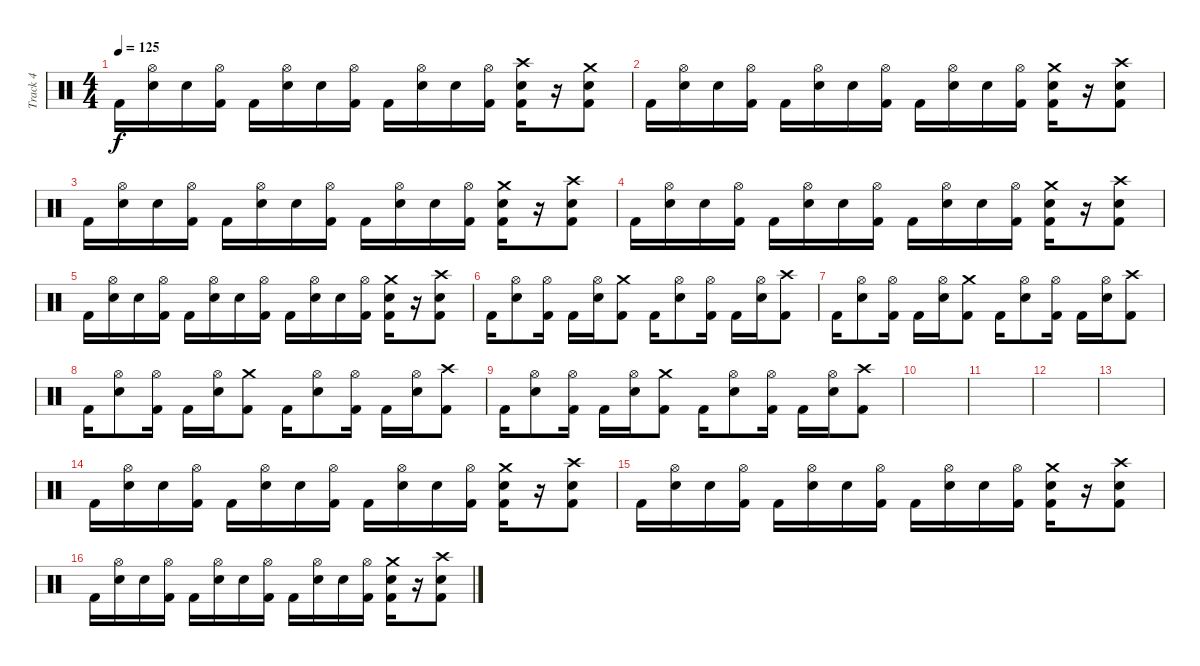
\track ("Track 4" "Track 4") {instrument percussion}
\staff {score}
\articulation defaults
\ts (4 4)
\tempo 125
\clef neutral
\ks c "Kick (hit) 2".16{dy f}
("Hi-Hat (open)" "Electric Snare (hit)").16 "Electric Snare (hit)".16 ("Hi-Hat (open)" "Kick (hit) 2").16 "Kick (hit) 2".16 ("Hi-Hat (open)" "Electric Snare (hit)").16 "Electric Snare (hit)".16 ("Hi-Hat (open)" "Kick (hit) 2").16 "Kick (hit) 2".16 ("Hi-Hat (open)" "Electric Snare (hit)").16 "Electric Snare (hit)".16 ("Hi-Hat (open)" "Kick (hit) 2").16 ("Crash high (hit)" "Electric Snare (hit)" "Kick (hit) 2").16 r.16 ("Crash medium (hit)" "Electric Snare (hit)" "Kick (hit) 2").8 |
"Kick (hit) 2".16 ("Hi-Hat (open)" "Electric Snare (hit)").16 "Electric Snare (hit)".16 ("Hi-Hat (open)" "Kick (hit) 2").16 "Kick (hit) 2".16 ("Hi-Hat (open)" "Electric Snare (hit)").16 "Electric Snare (hit)".16 ("Hi-Hat (open)" "Kick (hit) 2").16 "Kick (hit) 2".16 ("Hi-Hat (open)" "Electric Snare (hit)").16 "Electric Snare (hit)".16 ("Hi-Hat (open)" "Kick (hit) 2").16 ("Crash medium (hit)" "Electric Snare (hit)" "Kick (hit) 2").16 r.16 ("Crash high (hit)" "Electric Snare (hit)" "Kick (hit) 2").8 |
"Kick (hit) 2".16 ("Hi-Hat (open)" "Electric Snare (hit)").16 "Electric Snare (hit)".16 ("Hi-Hat (open)" "Kick (hit) 2").16 "Kick (hit) 2".16 ("Hi-Hat (open)" "Electric Snare (hit)").16 "Electric Snare (hit)".16 ("Hi-Hat (open)" "Kick (hit) 2").16 "Kick (hit) 2".16 ("Hi-Hat (open)" "Electric Snare (hit)").16 "Electric Snare (hit)".16 ("Hi-Hat (open)" "Kick (hit) 2").16 ("Crash medium (hit)" "Electric Snare (hit)" "Kick (hit) 2").16 r.16 ("Crash high (hit)" "Electric Snare (hit)" "Kick (hit) 2").8 |
"Kick (hit) 2".16 ("Hi-Hat (open)" "Electric Snare (hit)").16 "Electric Snare (hit)".16 ("Hi-Hat (open)" "Kick (hit) 2").16 "Kick (hit) 2".16 ("Hi-Hat (open)" "Electric Snare (hit)").16 "Electric Snare (hit)".16 ("Hi-Hat (open)" "Kick (hit) 2").16 "Kick (hit) 2".16 ("Hi-Hat (open)" "Electric Snare (hit)").16 "Electric Snare (hit)".16 ("Hi-Hat (open)" "Kick (hit) 2").16 ("Crash medium (hit)" "Electric Snare (hit)" "Kick (hit) 2").16 r.16 ("Crash high (hit)" "Electric Snare (hit)" "Kick (hit) 2").8 |
"Kick (hit) 2".16 ("Hi-Hat (open)" "Electric Snare (hit)").16 "Electric Snare (hit)".16 ("Hi-Hat (open)" "Kick (hit) 2").16 "Kick (hit) 2".16 ("Hi-Hat (open)" "Electric Snare (hit)").16 "Electric Snare (hit)".16 ("Hi-Hat (open)" "Kick (hit) 2").16 "Kick (hit) 2".16 ("Hi-Hat (open)" "Electric Snare (hit)").16 "Electric Snare (hit)".16 ("Hi-Hat (open)" "Kick (hit) 2").16 ("Crash medium (hit)" "Electric Snare (hit)" "Kick (hit) 2").16 r.16 ("Crash high (hit)" "Electric Snare (hit)" "Kick (hit) 2").8 |
"Kick (hit) 2".16 ("Hi-Hat (open)" "Electric Snare (hit)").8 ("Hi-Hat (open)" "Kick (hit) 2").16 "Kick (hit) 2".16 ("Hi-Hat (open)" "Electric Snare (hit)").16 ("Crash medium (hit)" "Kick (hit) 2").8 "Kick (hit) 2".16 ("Hi-Hat (open)" "Electric Snare (hit)").8 ("Hi-Hat (open)" "Kick (hit) 2").16 "Kick (hit) 2".16 ("Hi-Hat (open)" "Electric Snare (hit)").16 ("Crash high (hit)" "Kick (hit) 2").8 |
"Kick (hit) 2".16 ("Hi-Hat (open)" "Electric Snare (hit)").8 ("Hi-Hat (open)" "Kick (hit) 2").16 "Kick (hit) 2".16 ("Hi-Hat (open)" "Electric Snare (hit)").16 ("Crash medium (hit)" "Kick (hit) 2").8 "Kick (hit) 2".16 ("Hi-Hat (open)" "Electric Snare (hit)").8 ("Hi-Hat (open)" "Kick (hit) 2").16 "Kick (hit) 2".16 ("Hi-Hat (open)" "Electric Snare (hit)").16 ("Crash high (hit)" "Kick (hit) 2").8 |
"Kick (hit) 2".16 ("Hi-Hat (open)" "Electric Snare (hit)").8 ("Hi-Hat (open)" "Kick (hit) 2").16 "Kick (hit) 2".16 ("Hi-Hat (open)" "Electric Snare (hit)").16 ("Crash medium (hit)" "Kick (hit) 2").8 "Kick (hit) 2".16 ("Hi-Hat (open)" "Electric Snare (hit)").8 ("Hi-Hat (open)" "Kick (hit) 2").16 "Kick (hit) 2".16 ("Hi-Hat (open)" "Electric Snare (hit)").16 ("Crash high (hit)" "Kick (hit) 2").8 |
"Kick (hit) 2".16 ("Hi-Hat (open)" "Electric Snare (hit)").8 ("Hi-Hat (open)" "Kick (hit) 2").16 "Kick (hit) 2".16 ("Hi-Hat (open)" "Electric Snare (hit)").16 ("Crash medium (hit)" "Kick (hit) 2").8 "Kick (hit) 2".16 ("Hi-Hat (open)" "Electric Snare (hit)").8 ("Hi-Hat (open)" "Kick (hit) 2").16 "Kick (hit) 2".16 ("Hi-Hat (open)" "Electric Snare (hit)").16 ("Crash high (hit)" "Kick (hit) 2").8 |
|
|
|
|
"Kick (hit) 2".16 ("Hi-Hat (open)" "Electric Snare (hit)").16 "Electric Snare (hit)".16 ("Hi-Hat (open)" "Kick (hit) 2").16 "Kick (hit) 2".16 ("Hi-Hat (open)" "Electric Snare (hit)").16 "Electric Snare (hit)".16 ("Hi-Hat (open)" "Kick (hit) 2").16 "Kick (hit) 2".16 ("Hi-Hat (open)" "Electric Snare (hit)").16 "Electric Snare (hit)".16 ("Hi-Hat (open)" "Kick (hit) 2").16 ("Crash medium (hit)" "Electric Snare (hit)" "Kick (hit) 2").16 r.16 ("Crash high (hit)" "Electric Snare (hit)" "Kick (hit) 2").8 |
"Kick (hit) 2".16 ("Hi-Hat (open)" "Electric Snare (hit)").16 "Electric Snare (hit)".16 ("Hi-Hat (open)" "Kick (hit) 2").16 "Kick (hit) 2".16 ("Hi-Hat (open)" "Electric Snare (hit)").16 "Electric Snare (hit)".16 ("Hi-Hat (open)" "Kick (hit) 2").16 "Kick (hit) 2".16 ("Hi-Hat (open)" "Electric Snare (hit)").16 "Electric Snare (hit)".16 ("Hi-Hat (open)" "Kick (hit) 2").16 ("Crash medium (hit)" "Electric Snare (hit)" "Kick (hit) 2").16 r.16 ("Crash high (hit)" "Electric Snare (hit)" "Kick (hit) 2").8 |
"Kick (hit) 2".16 ("Hi-Hat (open)" "Electric Snare (hit)").16 "Electric Snare (hit)".16 ("Hi-Hat (open)" "Kick (hit) 2").16 "Kick (hit) 2".16 ("Hi-Hat (open)" "Electric Snare (hit)").16 "Electric Snare (hit)".16 ("Hi-Hat (open)" "Kick (hit) 2").16 "Kick (hit) 2".16 ("Hi-Hat (open)" "Electric Snare (hit)").16 "Electric Snare (hit)".16 ("Hi-Hat (open)" "Kick (hit) 2").16 ("Crash medium (hit)" "Electric Snare (hit)" "Kick (hit) 2").16 r.16 ("Crash high (hit)" "Electric Snare (hit)" "Kick (hit) 2").8
